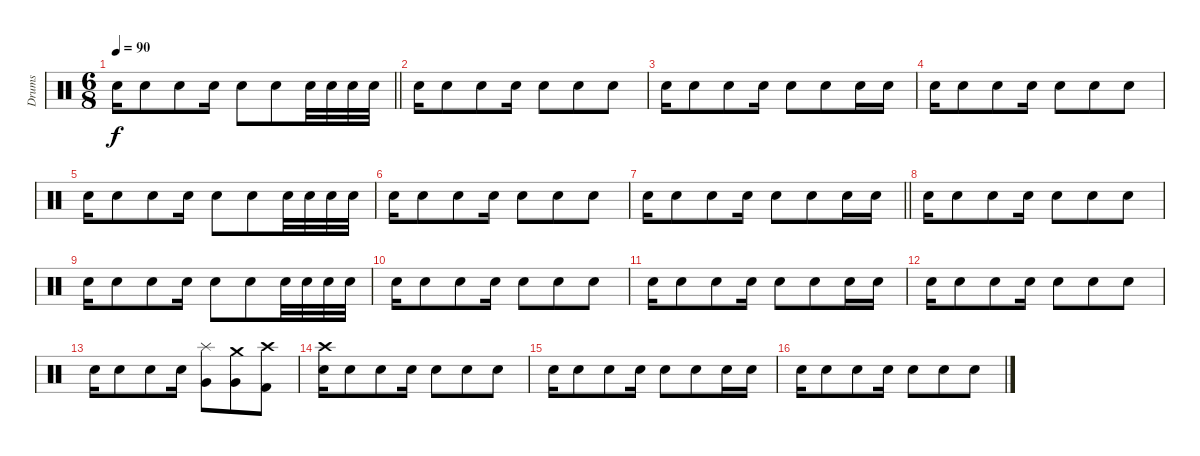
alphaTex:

\track ("Drums" "Drums") {instrument percussion}
\staff {score}
\articulation defaults
\ts (6 8)
\section ("" "")
\tempo 90
\clef neutral
\barLineRight lightlight
\ks c "Electric Snare (hit)".16{dy f} "Electric Snare (hit)".8 "Electric Snare (hit)".8 "Electric Snare (hit)".16 "Electric Snare (hit)".8 "Electric Snare (hit)".8 "Electric Snare (hit)".32 "Electric Snare (hit)".32 "Electric Snare (hit)".32 "Electric Snare (hit)".32
|
"Electric Snare (hit)".16 "Electric Snare (hit)".8 "Electric Snare (hit)".8 "Electric Snare (hit)".16 "Electric Snare (hit)".8 "Electric Snare (hit)".8 "Electric Snare (hit)".8 |
"Electric Snare (hit)".16 "Electric Snare (hit)".8 "Electric Snare (hit)".8 "Electric Snare (hit)".16 "Electric Snare (hit)".8 "Electric Snare (hit)".8 "Electric Snare (hit)".16 "Electric Snare (hit)".16 |
"Electric Snare (hit)".16 "Electric Snare (hit)".8 "Electric Snare (hit)".8 "Electric Snare (hit)".16 "Electric Snare (hit)".8 "Electric Snare (hit)".8 "Electric Snare (hit)".8 |
"Electric Snare (hit)".16 "Electric Snare (hit)".8 "Electric Snare (hit)".8 "Electric Snare (hit)".16 "Electric Snare (hit)".8 "Electric Snare (hit)".8 "Electric Snare (hit)".32 "Electric Snare (hit)".32 "Electric Snare (hit)".32 "Electric Snare (hit)".32 |
"Electric Snare (hit)".16 "Electric Snare (hit)".8 "Electric Snare (hit)".8 "Electric Snare (hit)".16 "Electric Snare (hit)".8 "Electric Snare (hit)".8 "Electric Snare (hit)".8 |
\barLineRight lightlight "Electric Snare (hit)".16 "Electric Snare (hit)".8 "Electric Snare (hit)".8 "Electric Snare (hit)".16 "Electric Snare (hit)".8 "Electric Snare (hit)".8 "Electric Snare (hit)".16 "Electric Snare (hit)".16
|
"Electric Snare (hit)".16 "Electric Snare (hit)".8 "Electric Snare (hit)".8 "Electric Snare (hit)".16 "Electric Snare (hit)".8 "Electric Snare (hit)".8 "Electric Snare (hit)".8 |
"Electric Snare (hit)".16 "Electric Snare (hit)".8 "Electric Snare (hit)".8 "Electric Snare (hit)".16 "Electric Snare (hit)".8 "Electric Snare (hit)".8 "Electric Snare (hit)".32 "Electric Snare (hit)".32 "Electric Snare (hit)".32 "Electric Snare (hit)".32 |
"Electric Snare (hit)".16 "Electric Snare (hit)".8 "Electric Snare (hit)".8 "Electric Snare (hit)".16 "Electric Snare (hit)".8 "Electric Snare (hit)".8 "Electric Snare (hit)".8 |
"Electric Snare (hit)".16 "Electric Snare (hit)".8 "Electric Snare (hit)".8 "Electric Snare (hit)".16 "Electric Snare (hit)".8 "Electric Snare (hit)".8 "Electric Snare (hit)".16 "Electric Snare (hit)".16 |
"Electric Snare (hit)".16 "Electric Snare (hit)".8 "Electric Snare (hit)".8 "Electric Snare (hit)".16 "Electric Snare (hit)".8 "Electric Snare (hit)".8 "Electric Snare (hit)".8 |
"Electric Snare (hit)".16 "Electric Snare (hit)".8 "Electric Snare (hit)".8 "Electric Snare (hit)".16 ("Splash (hit)" "Very Low Tom (hit)").8 ("Crash medium (hit)" "Very Low Tom (hit)").8 ("Crash high (hit)" "Kick (hit) 2").8 |
("Electric Snare (hit)" "Crash high (hit)").16 "Electric Snare (hit)".8 "Electric Snare (hit)".8 "Electric Snare (hit)".16 "Electric Snare (hit)".8 "Electric Snare (hit)".8 "Electric Snare (hit)".8 |
"Electric Snare (hit)".16 "Electric Snare (hit)".8 "Electric Snare (hit)".8 "Electric Snare (hit)".16 "Electric Snare (hit)".8 "Electric Snare (hit)".8 "Electric Snare (hit)".16 "Electric Snare (hit)".16 |
"Electric Snare (hit)".16 "Electric Snare (hit)".8 "Electric Snare (hit)".8 "Electric Snare (hit)".16 "Electric Snare (hit)".8 "Electric Snare (hit)".8 "Electric Snare (hit)".8
